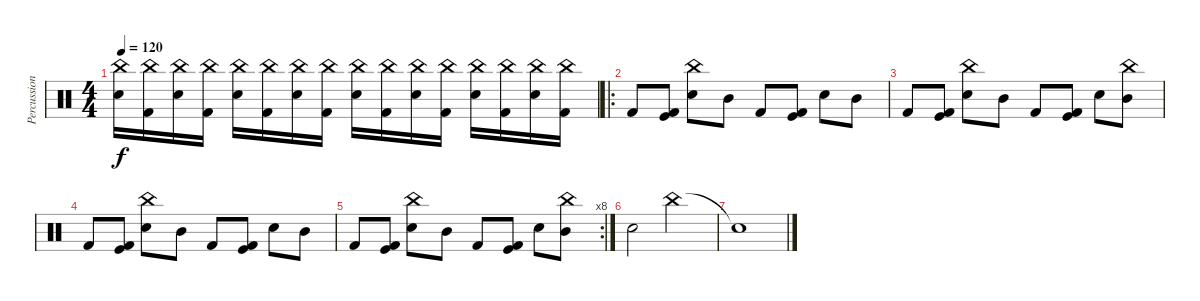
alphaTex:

\track ("Percussion" "Percussion") {instrument percussion}
\staff {score}
\articulation defaults
\ts (4 4)
\tempo 120
\clef neutral
\ks c
("China (hit)" "Snare (hit) 2").16{dy f} ("China (hit)" "Kick (hit) 2").16 ("China (hit)" "Snare (hit) 2").16 ("China (hit)" "Kick (hit) 2").16 ("China (hit)" "Snare (hit) 2").16 ("China (hit)" "Kick (hit) 2").16 ("China (hit)" "Snare (hit) 2").16 ("China (hit)" "Kick (hit) 2").16 ("China (hit)" "Snare (hit) 2").16 ("China (hit)" "Kick (hit) 2").16 ("China (hit)" "Snare (hit) 2").16 ("China (hit)" "Kick (hit) 2").16 ("China (hit)" "Snare (hit) 2").16 ("China (hit)" "Kick (hit) 2").16 ("China (hit)" "Snare (hit) 2").16 ("China (hit)" "Kick (hit) 2").16 |
\ro "Kick (hit) 2".8
("Kick (hit)" "Kick (hit) 2").8 ("China (hit)" "Snare (hit) 2").8 "Mid Tom (hit)".8 "Kick (hit) 2".8 ("Kick (hit)" "Kick (hit) 2").8 "Snare (hit) 2".8 "Mid Tom (hit)".8 |
"Kick (hit) 2".8 ("Kick (hit)" "Kick (hit) 2").8 ("China (hit)" "Snare (hit) 2").8 "Mid Tom (hit)".8 "Kick (hit) 2".8 ("Kick (hit)" "Kick (hit) 2").8 "Snare (hit) 2".8 ("China (hit)" "Mid Tom (hit)").8 |
"Kick (hit) 2".8 ("Kick (hit)" "Kick (hit) 2").8 ("China (hit)" "Snare (hit) 2").8 "Mid Tom (hit)".8 "Kick (hit) 2".8 ("Kick (hit)" "Kick (hit) 2").8 "Snare (hit) 2".8 "Mid Tom (hit)".8 |
\rc 8 "Kick (hit) 2".8
("Kick (hit)" "Kick (hit) 2").8 ("China (hit)" "Snare (hit) 2").8 "Mid Tom (hit)".8 "Kick (hit) 2".8 ("Kick (hit)" "Kick (hit) 2").8 "Snare (hit) 2".8 ("China (hit)" "Mid Tom (hit)").8 |
"Snare (hit) 2".2 "China (hit)".2 |
"Snare (hit)"{t}.1
